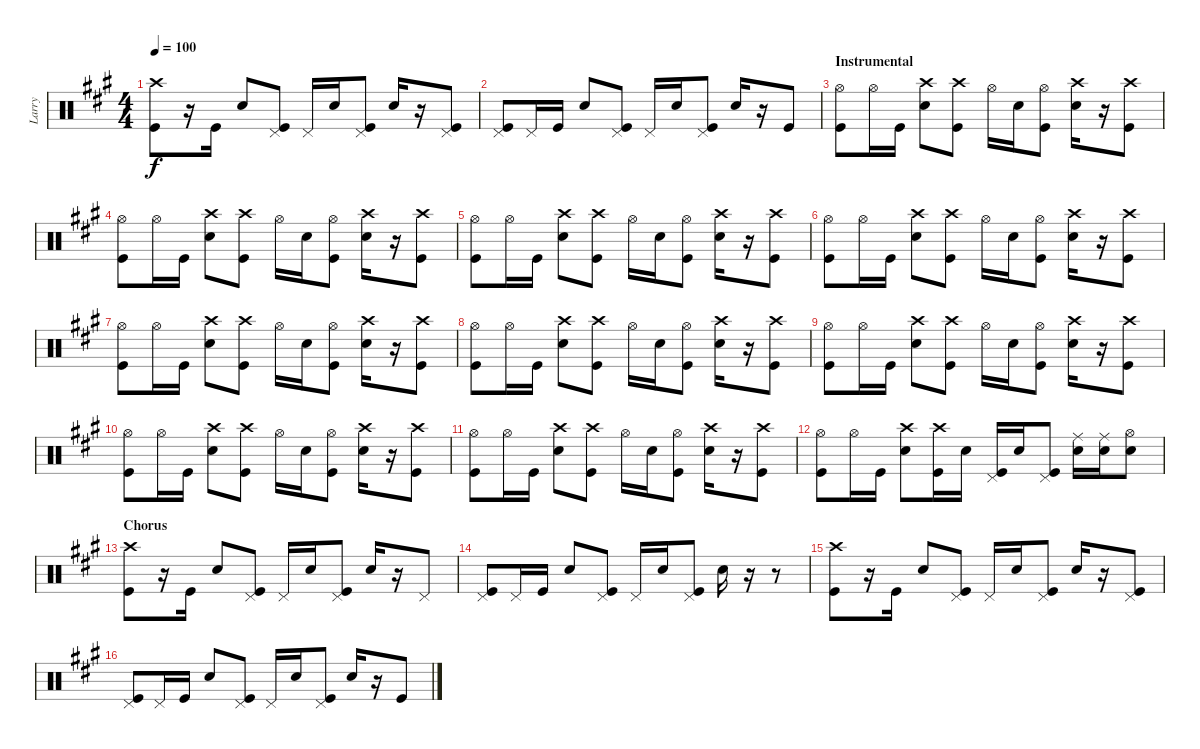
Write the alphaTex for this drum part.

\track ("Larry" "Larry") {instrument percussion}
\staff {score}
\articulation defaults
\ts (4 4)
\tempo 100
\clef neutral
\ks f#minor
("Crash high (hit)" "Kick (hit)").8{dy f} r.16 "Kick (hit)".16 "Snare (hit) 2".8 ("Pedal Hi-Hat (hit)" "Kick (hit)").8 "Pedal Hi-Hat (hit)".16 "Snare (hit) 2".16 ("Pedal Hi-Hat (hit)" "Kick (hit)").8 "Snare (hit) 2".16 r.16 ("Pedal Hi-Hat (hit)" "Kick (hit)").8 |
("Pedal Hi-Hat (hit)" "Kick (hit)").8 "Pedal Hi-Hat (hit)".16 "Kick (hit)".16 "Snare (hit) 2".8 ("Pedal Hi-Hat (hit)" "Kick (hit)").8 "Pedal Hi-Hat (hit)".16 "Snare (hit) 2".16 ("Pedal Hi-Hat (hit)" "Kick (hit)").8 "Snare (hit) 2".16 r.16 "Kick (hit)".8 |
\section ("" "Instrumental")
("Hi-Hat (open)" "Kick (hit)").8 "Hi-Hat (open)".16 "Kick (hit)".16 ("Crash high (hit)" "Snare (hit) 2").8 ("Crash high (hit)" "Kick (hit)").8 "Hi-Hat (open)".16 "Snare (hit) 2".16 ("Hi-Hat (open)" "Kick (hit)").8 ("Crash high (hit)" "Snare (hit) 2").16 r.16 ("Crash high (hit)" "Kick (hit)").8 |
("Hi-Hat (open)" "Kick (hit)").8 "Hi-Hat (open)".16 "Kick (hit)".16 ("Crash high (hit)" "Snare (hit) 2").8 ("Crash high (hit)" "Kick (hit)").8 "Hi-Hat (open)".16 "Snare (hit) 2".16 ("Hi-Hat (open)" "Kick (hit)").8 ("Crash high (hit)" "Snare (hit) 2").16 r.16 ("Crash high (hit)" "Kick (hit)").8 |
("Hi-Hat (open)" "Kick (hit)").8 "Hi-Hat (open)".16 "Kick (hit)".16 ("Crash high (hit)" "Snare (hit) 2").8 ("Crash high (hit)" "Kick (hit)").8 "Hi-Hat (open)".16 "Snare (hit) 2".16 ("Hi-Hat (open)" "Kick (hit)").8 ("Crash high (hit)" "Snare (hit) 2").16 r.16 ("Crash high (hit)" "Kick (hit)").8 |
("Hi-Hat (open)" "Kick (hit)").8 "Hi-Hat (open)".16 "Kick (hit)".16 ("Crash high (hit)" "Snare (hit) 2").8 ("Crash high (hit)" "Kick (hit)").8 "Hi-Hat (open)".16 "Snare (hit) 2".16 ("Hi-Hat (open)" "Kick (hit)").8 ("Crash high (hit)" "Snare (hit) 2").16 r.16 ("Crash high (hit)" "Kick (hit)").8 |
("Hi-Hat (open)" "Kick (hit)").8 "Hi-Hat (open)".16 "Kick (hit)".16 ("Crash high (hit)" "Snare (hit) 2").8 ("Crash high (hit)" "Kick (hit)").8 "Hi-Hat (open)".16 "Snare (hit) 2".16 ("Hi-Hat (open)" "Kick (hit)").8 ("Crash high (hit)" "Snare (hit) 2").16 r.16 ("Crash high (hit)" "Kick (hit)").8 |
("Hi-Hat (open)" "Kick (hit)").8 "Hi-Hat (open)".16 "Kick (hit)".16 ("Crash high (hit)" "Snare (hit) 2").8 ("Crash high (hit)" "Kick (hit)").8 "Hi-Hat (open)".16 "Snare (hit) 2".16 ("Hi-Hat (open)" "Kick (hit)").8 ("Crash high (hit)" "Snare (hit) 2").16 r.16 ("Crash high (hit)" "Kick (hit)").8 |
("Hi-Hat (open)" "Kick (hit)").8 "Hi-Hat (open)".16 "Kick (hit)".16 ("Crash high (hit)" "Snare (hit) 2").8 ("Crash high (hit)" "Kick (hit)").8 "Hi-Hat (open)".16 "Snare (hit) 2".16 ("Hi-Hat (open)" "Kick (hit)").8 ("Crash high (hit)" "Snare (hit) 2").16 r.16 ("Crash high (hit)" "Kick (hit)").8 |
("Hi-Hat (open)" "Kick (hit)").8 "Hi-Hat (open)".16 "Kick (hit)".16 ("Crash high (hit)" "Snare (hit) 2").8 ("Crash high (hit)" "Kick (hit)").8 "Hi-Hat (open)".16 "Snare (hit) 2".16 ("Hi-Hat (open)" "Kick (hit)").8 ("Crash high (hit)" "Snare (hit) 2").16 r.16 ("Crash high (hit)" "Kick (hit)").8 |
("Hi-Hat (open)" "Kick (hit)").8 "Hi-Hat (open)".16 "Kick (hit)".16 ("Crash high (hit)" "Snare (hit) 2").8 ("Crash high (hit)" "Kick (hit)").8 "Hi-Hat (open)".16 "Snare (hit) 2".16 ("Hi-Hat (open)" "Kick (hit)").8 ("Crash high (hit)" "Snare (hit) 2").16 r.16 ("Crash high (hit)" "Kick (hit)").8 |
("Hi-Hat (open)" "Kick (hit)").8 "Hi-Hat (open)".16 "Kick (hit)".16 ("Crash high (hit)" "Snare (hit) 2").8 ("Crash high (hit)" "Kick (hit)").16 "Snare (hit) 2".16 ("Pedal Hi-Hat (hit)" "Kick (hit)").16 "Snare (hit) 2".16 ("Pedal Hi-Hat (hit)" "Kick (hit)").8 ("Ride (middle)" "Snare (hit) 2").16 ("Ride (middle)" "Snare (hit) 2").16 ("Hi-Hat (open)" "Snare (hit) 2").8 |
\section ("" "Chorus")
("Crash high (hit)" "Kick (hit)").8 r.16 "Kick (hit)".16 "Snare (hit) 2".8 ("Pedal Hi-Hat (hit)" "Kick (hit)").8 "Pedal Hi-Hat (hit)".16 "Snare (hit) 2".16 ("Pedal Hi-Hat (hit)" "Kick (hit)").8 "Snare (hit) 2".16 r.16 "Pedal Hi-Hat (hit)".8 |
("Pedal Hi-Hat (hit)" "Kick (hit)").8 "Pedal Hi-Hat (hit)".16 "Kick (hit)".16 "Snare (hit) 2".8 ("Pedal Hi-Hat (hit)" "Kick (hit)").8 "Pedal Hi-Hat (hit)".16 "Snare (hit) 2".16 ("Pedal Hi-Hat (hit)" "Kick (hit)").8 "Snare (hit) 2".16 r.16 r.8 |
("Crash high (hit)" "Kick (hit)").8 r.16 "Kick (hit)".16 "Snare (hit) 2".8 ("Pedal Hi-Hat (hit)" "Kick (hit)").8 "Pedal Hi-Hat (hit)".16 "Snare (hit) 2".16 ("Pedal Hi-Hat (hit)" "Kick (hit)").8 "Snare (hit) 2".16 r.16 ("Pedal Hi-Hat (hit)" "Kick (hit)").8 |
("Pedal Hi-Hat (hit)" "Kick (hit)").8 "Pedal Hi-Hat (hit)".16 "Kick (hit)".16 "Snare (hit) 2".8 ("Pedal Hi-Hat (hit)" "Kick (hit)").8 "Pedal Hi-Hat (hit)".16 "Snare (hit) 2".16 ("Pedal Hi-Hat (hit)" "Kick (hit)").8 "Snare (hit) 2".16 r.16 "Kick (hit)".8
